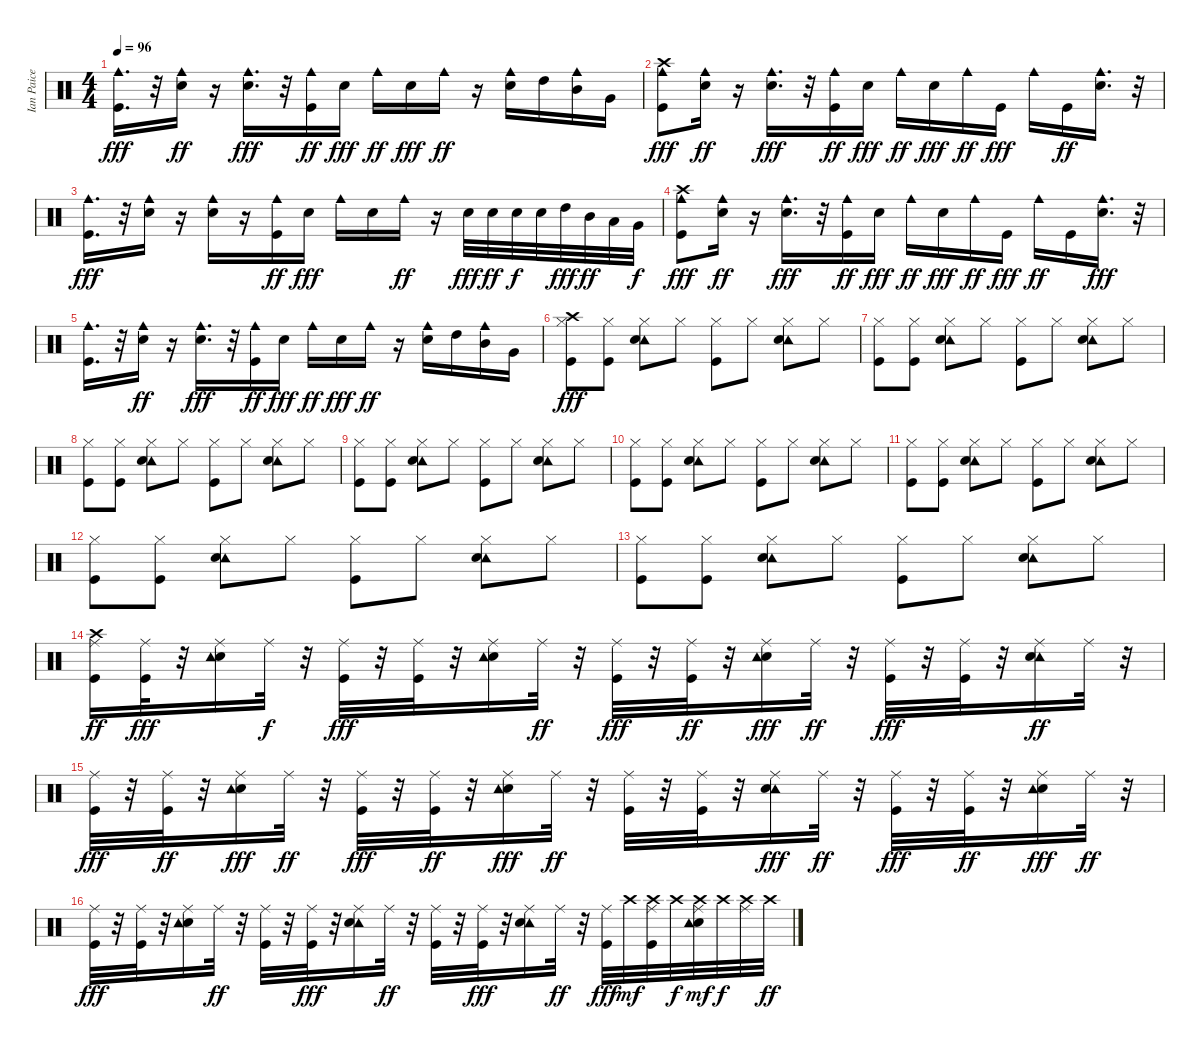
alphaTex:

\track ("Ian Paice" "Ian Paice") {instrument percussion}
\staff {score}
\articulation defaults
\ts (4 4)
\tempo 96
\clef neutral
\ks c
("Cowbell medium (hit)" "Kick (hit)").16{d dy fff} r.32 ("Snare (hit) 2" "Cowbell medium (hit)").16{dy ff} r.16 ("Cowbell medium (hit)" "Snare (hit) 2").16{d dy fff} r.32 ("Kick (hit)" "Cowbell medium (hit)").16{dy ff} "Snare (hit) 2".16{dy fff} "Cowbell medium (hit)".16{dy ff} "Snare (hit) 2".16{dy fff} "Cowbell medium (hit)".16{dy ff} r.16 ("Cowbell medium (hit)" "Snare (hit) 2").16 "High Tom (hit)".16 ("Cowbell medium (hit)" "Mid Tom (hit)").16 "Very Low Tom (hit)".16 |
("Cowbell medium (hit)" "Kick (hit)" "Crash high (hit)").8{dy fff} ("Snare (hit) 2" "Cowbell medium (hit)").16{dy ff} r.16 ("Cowbell medium (hit)" "Snare (hit) 2").16{d dy fff} r.32 ("Kick (hit)" "Cowbell medium (hit)").16{dy ff} "Snare (hit) 2".16{dy fff} "Cowbell medium (hit)".16{dy ff} "Snare (hit) 2".16{dy fff} "Cowbell medium (hit)".16{dy ff} "Kick (hit)".16{dy fff} "Cowbell medium (hit)".16 "Kick (hit)".16{dy ff} ("Snare (hit) 2" "Cowbell medium (hit)").16{d} r.32 |
("Cowbell medium (hit)" "Kick (hit)").16{d dy fff} r.32 ("Snare (hit) 2" "Cowbell medium (hit)").16 r.16 ("Cowbell medium (hit)" "Snare (hit) 2").16 r.16 ("Kick (hit)" "Cowbell medium (hit)").16{dy ff} "Snare (hit) 2".16{dy fff} "Cowbell medium (hit)".16 "Snare (hit) 2".16 "Cowbell medium (hit)".16{dy ff} r.16 "Snare (hit) 2".32{dy fff} "Snare (hit) 2".32{dy ff} "Snare (hit) 2".32{dy f} "Snare (hit) 2".32 "High Tom (hit)".32{dy fff} "Mid Tom (hit)".32{dy ff} "Low Tom (hit)".32 "Very Low Tom (hit)".32{dy f} |
("Cowbell medium (hit)" "Kick (hit)" "Crash high (hit)").8{dy fff} ("Snare (hit) 2" "Cowbell medium (hit)").16{dy ff} r.16 ("Cowbell medium (hit)" "Snare (hit) 2").16{d dy fff} r.32 ("Kick (hit)" "Cowbell medium (hit)").16{dy ff} "Snare (hit) 2".16{dy fff} "Cowbell medium (hit)".16{dy ff} "Snare (hit) 2".16{dy fff} "Cowbell medium (hit)".16{dy ff} "Kick (hit)".16{dy fff} "Cowbell medium (hit)".16{dy ff} "Kick (hit)".16 ("Snare (hit) 2" "Cowbell medium (hit)").16{d dy fff} r.32 |
("Cowbell medium (hit)" "Kick (hit)").16{d} r.32 ("Snare (hit) 2" "Cowbell medium (hit)").16{dy ff} r.16 ("Cowbell medium (hit)" "Snare (hit) 2").16{d dy fff} r.32 ("Kick (hit)" "Cowbell medium (hit)").16{dy ff} "Snare (hit) 2".16{dy fff} "Cowbell medium (hit)".16{dy ff} "Snare (hit) 2".16{dy fff} "Cowbell medium (hit)".16{dy ff} r.16 ("Cowbell medium (hit)" "Snare (hit) 2").16 "High Tom (hit)".16 ("Cowbell medium (hit)" "Mid Tom (hit)").16 "Very Low Tom (hit)".16 |
("Kick (hit)" "Crash high (hit)" "Hi-Hat (closed)").8{dy fff} ("Kick (hit)" "Hi-Hat (closed)").8 ("Tambourine (hit)" "Snare (hit) 2" "Hi-Hat (closed)").8 "Hi-Hat (closed)".8 ("Kick (hit)" "Hi-Hat (closed)").8 "Hi-Hat (closed)".8 ("Tambourine (hit)" "Snare (hit) 2" "Hi-Hat (closed)").8 "Hi-Hat (closed)".8 |
("Kick (hit)" "Hi-Hat (closed)").8 ("Kick (hit)" "Hi-Hat (closed)").8 ("Tambourine (hit)" "Snare (hit) 2" "Hi-Hat (closed)").8 "Hi-Hat (closed)".8 ("Kick (hit)" "Hi-Hat (closed)").8 "Hi-Hat (closed)".8 ("Tambourine (hit)" "Snare (hit) 2" "Hi-Hat (closed)").8 "Hi-Hat (closed)".8 |
("Kick (hit)" "Hi-Hat (closed)").8 ("Kick (hit)" "Hi-Hat (closed)").8 ("Tambourine (hit)" "Snare (hit) 2" "Hi-Hat (closed)").8 "Hi-Hat (closed)".8 ("Kick (hit)" "Hi-Hat (closed)").8 "Hi-Hat (closed)".8 ("Tambourine (hit)" "Snare (hit) 2" "Hi-Hat (closed)").8 "Hi-Hat (closed)".8 |
("Kick (hit)" "Hi-Hat (closed)").8 ("Kick (hit)" "Hi-Hat (closed)").8 ("Tambourine (hit)" "Snare (hit) 2" "Hi-Hat (closed)").8 "Hi-Hat (closed)".8 ("Kick (hit)" "Hi-Hat (closed)").8 "Hi-Hat (closed)".8 ("Tambourine (hit)" "Snare (hit) 2" "Hi-Hat (closed)").8 "Hi-Hat (closed)".8 |
("Kick (hit)" "Hi-Hat (closed)").8 ("Kick (hit)" "Hi-Hat (closed)").8 ("Tambourine (hit)" "Snare (hit) 2" "Hi-Hat (closed)").8 "Hi-Hat (closed)".8 ("Kick (hit)" "Hi-Hat (closed)").8 "Hi-Hat (closed)".8 ("Tambourine (hit)" "Snare (hit) 2" "Hi-Hat (closed)").8 "Hi-Hat (closed)".8 |
("Kick (hit)" "Hi-Hat (closed)").8 ("Kick (hit)" "Hi-Hat (closed)").8 ("Tambourine (hit)" "Snare (hit) 2" "Hi-Hat (closed)").8 "Hi-Hat (closed)".8 ("Kick (hit)" "Hi-Hat (closed)").8 "Hi-Hat (closed)".8 ("Tambourine (hit)" "Snare (hit) 2" "Hi-Hat (closed)").8 "Hi-Hat (closed)".8 |
("Kick (hit)" "Hi-Hat (closed)").8 ("Kick (hit)" "Hi-Hat (closed)").8 ("Tambourine (hit)" "Snare (hit) 2" "Hi-Hat (closed)").8 "Hi-Hat (closed)".8 ("Kick (hit)" "Hi-Hat (closed)").8 "Hi-Hat (closed)".8 ("Tambourine (hit)" "Snare (hit) 2" "Hi-Hat (closed)").8 "Hi-Hat (closed)".8 |
("Kick (hit)" "Hi-Hat (closed)").8 ("Kick (hit)" "Hi-Hat (closed)").8 ("Tambourine (hit)" "Snare (hit) 2" "Hi-Hat (closed)").8 "Hi-Hat (closed)".8 ("Kick (hit)" "Hi-Hat (closed)").8 "Hi-Hat (closed)".8 ("Tambourine (hit)" "Snare (hit) 2" "Hi-Hat (closed)").8 "Hi-Hat (closed)".8 |
("Kick (hit)" "Crash high (hit)" "Ride (middle)").16{dy ff} ("Kick (hit)" "Ride (middle)").32{dy fff} r.32 ("Snare (hit) 2" "Ride (middle)" "Tambourine (hit)").16 "Ride (middle)".32{dy f} r.32 ("Kick (hit)" "Ride (middle)").32{dy fff} r.32 ("Kick (hit)" "Ride (middle)").32 r.32 ("Snare (hit) 2" "Ride (middle)" "Tambourine (hit)").16 "Ride (middle)".32{dy ff} r.32 ("Kick (hit)" "Ride (middle)").32{dy fff} r.32 ("Kick (hit)" "Ride (middle)").32{dy ff} r.32 ("Snare (hit) 2" "Ride (middle)" "Tambourine (hit)").16{dy fff} "Ride (middle)".32{dy ff} r.32 ("Kick (hit)" "Ride (middle)").32{dy fff} r.32 ("Kick (hit)" "Ride (middle)").32 r.32 ("Tambourine (hit)" "Snare (hit) 2" "Ride (middle)").16{dy ff} "Ride (middle)".32 r.32 |
("Kick (hit)" "Ride (middle)").32{dy fff} r.32 ("Kick (hit)" "Ride (middle)").32{dy ff} r.32 ("Snare (hit) 2" "Ride (middle)" "Tambourine (hit)").16{dy fff} "Ride (middle)".32{dy ff} r.32 ("Kick (hit)" "Ride (middle)").32{dy fff} r.32 ("Kick (hit)" "Ride (middle)").32{dy ff} r.32 ("Snare (hit) 2" "Ride (middle)" "Tambourine (hit)").16{dy fff} "Ride (middle)".32{dy ff} r.32 ("Kick (hit)" "Ride (middle)").32 r.32 ("Kick (hit)" "Ride (middle)").32 r.32 ("Tambourine (hit)" "Snare (hit) 2" "Ride (middle)").16{dy fff} "Ride (middle)".32{dy ff} r.32 ("Kick (hit)" "Ride (middle)").32{dy fff} r.32 ("Kick (hit)" "Ride (middle)").32{dy ff} r.32 ("Snare (hit) 2" "Ride (middle)" "Tambourine (hit)").16{dy fff} "Ride (middle)".32{dy ff} r.32 |
("Kick (hit)" "Ride (middle)").32{dy fff} r.32 ("Kick (hit)" "Ride (middle)").32 r.32 ("Snare (hit) 2" "Ride (middle)" "Tambourine (hit)").16 "Ride (middle)".32{dy ff} r.32 ("Kick (hit)" "Ride (middle)").32 r.32 ("Kick (hit)" "Ride (middle)").32{dy fff} r.32 ("Tambourine (hit)" "Snare (hit) 2" "Ride (middle)").16 "Ride (middle)".32{dy ff} r.32 ("Kick (hit)" "Ride (middle)").32 r.32 ("Kick (hit)" "Ride (middle)").32{dy fff} r.32 ("Tambourine (hit)" "Snare (hit) 2" "Ride (middle)").16 "Ride (middle)".32{dy ff} r.32 ("Kick (hit)" "Ride (middle)").32{dy fff} "Crash high (hit)".32{dy mf} ("Kick (hit)" "Ride (middle)" "Crash high (hit)").32 "Crash high (hit)".32{dy f} ("Snare (hit) 2" "Ride (middle)" "Tambourine (hit)" "Crash high (hit)").32{dy mf} "Crash high (hit)".32{dy f} ("Ride (middle)" "Crash high (hit)").32 "Crash high (hit)".32{dy ff}
